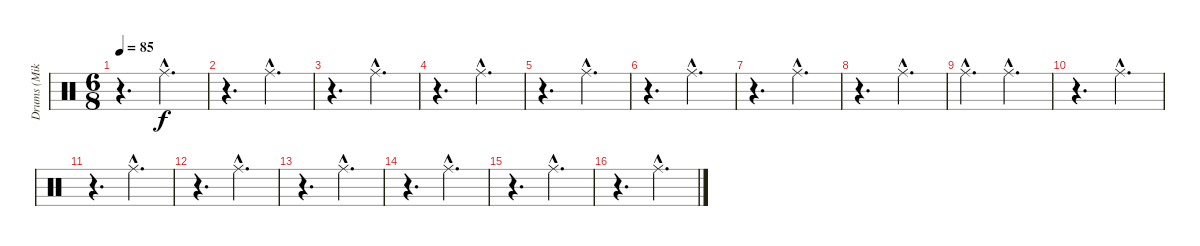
\track ("Drums (Mike Joyce)" "Drums (Mik") {instrument percussion}
\staff {score}
\articulation defaults
\ts (6 8)
\tempo 85
\clef neutral
\ks c
r.4{d dy f} "Ride (middle)"{hac}.4{d} |
r.4{d} "Ride (middle)"{hac}.4{d} |
r.4{d} "Ride (middle)"{hac}.4{d} |
r.4{d} "Ride (middle)"{hac}.4{d} |
r.4{d} "Ride (middle)"{hac}.4{d} |
r.4{d} "Ride (middle)"{hac}.4{d} |
r.4{d} "Ride (middle)"{hac}.4{d} |
r.4{d} "Ride (middle)"{hac}.4{d} |
"Ride (middle)"{hac}.4{d} "Ride (middle)"{hac}.4{d} |
r.4{d} "Ride (middle)"{hac}.4{d} |
r.4{d} "Ride (middle)"{hac}.4{d} |
r.4{d} "Ride (middle)"{hac}.4{d} |
r.4{d} "Ride (middle)"{hac}.4{d} |
r.4{d} "Ride (middle)"{hac}.4{d} |
r.4{d} "Ride (middle)"{hac}.4{d} |
r.4{d} "Ride (middle)"{hac}.4{d}
